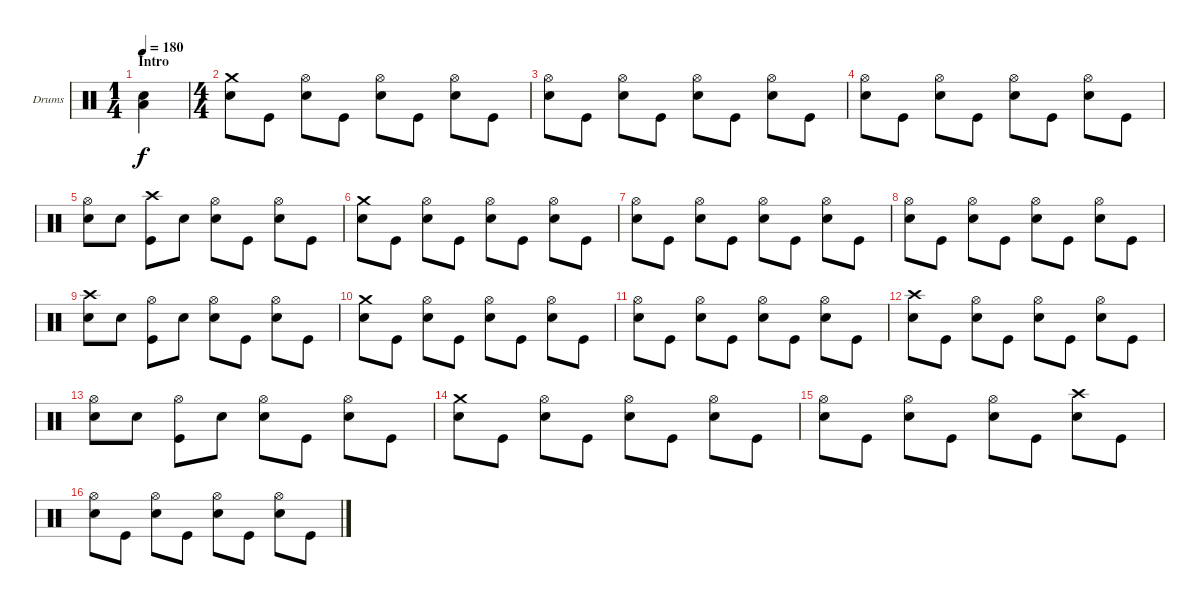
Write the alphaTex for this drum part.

\defaultSystemsLayout 4
\bracketExtendMode groupsimilarinstruments
\firstSystemTrackNameOrientation horizontal
\otherSystemsTrackNameOrientation horizontal
\track ("Drumkit" "Drums") {instrument percussion}
\staff {score}
\articulation defaults
\ts (1 4)
\section ("" "Intro")
\tempo 180
\clef neutral
\ks c
("Snare (hit) 2" "Low Tom (hit)").4{dy f} |
\ts (4 4)
("Crash medium (hit)" "Snare (hit) 2").8 "Kick (hit)".8 ("Hi-Hat (open)" "Snare (hit) 2").8 "Kick (hit)".8 ("Hi-Hat (open)" "Snare (hit) 2").8 "Kick (hit)".8 ("Hi-Hat (open)" "Snare (hit) 2").8 "Kick (hit)".8 |
("Snare (hit) 2" "Hi-Hat (open)").8 "Kick (hit)".8 ("Hi-Hat (open)" "Snare (hit) 2").8 "Kick (hit)".8 ("Hi-Hat (open)" "Snare (hit) 2").8 "Kick (hit)".8 ("Hi-Hat (open)" "Snare (hit) 2").8 "Kick (hit)".8 |
("Snare (hit) 2" "Hi-Hat (open)").8 "Kick (hit)".8 ("Hi-Hat (open)" "Snare (hit) 2").8 "Kick (hit)".8 ("Hi-Hat (open)" "Snare (hit) 2").8 "Kick (hit)".8 ("Hi-Hat (open)" "Snare (hit) 2").8 "Kick (hit)".8 |
("Snare (hit) 2" "Hi-Hat (open)").8 "Snare (hit) 2".8 ("Kick (hit)" "Crash high (hit)").8 "Snare (hit) 2".8 ("Snare (hit) 2" "Hi-Hat (open)").8 "Kick (hit)".8 ("Snare (hit) 2" "Hi-Hat (open)").8 "Kick (hit)".8 |
("Crash medium (hit)" "Snare (hit) 2").8 "Kick (hit)".8 ("Hi-Hat (open)" "Snare (hit) 2").8 "Kick (hit)".8 ("Hi-Hat (open)" "Snare (hit) 2").8 "Kick (hit)".8 ("Hi-Hat (open)" "Snare (hit) 2").8 "Kick (hit)".8 |
("Snare (hit) 2" "Hi-Hat (open)").8 "Kick (hit)".8 ("Hi-Hat (open)" "Snare (hit) 2").8 "Kick (hit)".8 ("Hi-Hat (open)" "Snare (hit) 2").8 "Kick (hit)".8 ("Hi-Hat (open)" "Snare (hit) 2").8 "Kick (hit)".8 |
("Snare (hit) 2" "Hi-Hat (open)").8 "Kick (hit)".8 ("Hi-Hat (open)" "Snare (hit) 2").8 "Kick (hit)".8 ("Hi-Hat (open)" "Snare (hit) 2").8 "Kick (hit)".8 ("Hi-Hat (open)" "Snare (hit) 2").8 "Kick (hit)".8 |
("Snare (hit) 2" "Crash high (hit)").8 "Snare (hit) 2".8 ("Kick (hit)" "Hi-Hat (open)").8 "Snare (hit) 2".8 ("Snare (hit) 2" "Hi-Hat (open)").8 "Kick (hit)".8 ("Snare (hit) 2" "Hi-Hat (open)").8 "Kick (hit)".8 |
("Crash medium (hit)" "Snare (hit) 2").8 "Kick (hit)".8 ("Hi-Hat (open)" "Snare (hit) 2").8 "Kick (hit)".8 ("Hi-Hat (open)" "Snare (hit) 2").8 "Kick (hit)".8 ("Hi-Hat (open)" "Snare (hit) 2").8 "Kick (hit)".8 |
("Snare (hit) 2" "Hi-Hat (open)").8 "Kick (hit)".8 ("Snare (hit) 2" "Hi-Hat (open)").8 "Kick (hit)".8 ("Hi-Hat (open)" "Snare (hit) 2").8 "Kick (hit)".8 ("Hi-Hat (open)" "Snare (hit) 2").8 "Kick (hit)".8 |
("Snare (hit) 2" "Crash high (hit)").8 "Kick (hit)".8 ("Hi-Hat (open)" "Snare (hit) 2").8 "Kick (hit)".8 ("Hi-Hat (open)" "Snare (hit) 2").8 "Kick (hit)".8 ("Hi-Hat (open)" "Snare (hit) 2").8 "Kick (hit)".8 |
("Snare (hit) 2" "Hi-Hat (open)").8 "Snare (hit) 2".8 ("Kick (hit)" "Hi-Hat (open)").8 "Snare (hit) 2".8 ("Snare (hit) 2" "Hi-Hat (open)").8 "Kick (hit)".8 ("Snare (hit) 2" "Hi-Hat (open)").8 "Kick (hit)".8 |
("Crash medium (hit)" "Snare (hit) 2").8 "Kick (hit)".8 ("Hi-Hat (open)" "Snare (hit) 2").8 "Kick (hit)".8 ("Hi-Hat (open)" "Snare (hit) 2").8 "Kick (hit)".8 ("Hi-Hat (open)" "Snare (hit) 2").8 "Kick (hit)".8 |
("Snare (hit) 2" "Hi-Hat (open)").8 "Kick (hit)".8 ("Hi-Hat (open)" "Snare (hit) 2").8 "Kick (hit)".8 ("Hi-Hat (open)" "Snare (hit) 2").8 "Kick (hit)".8 ("Snare (hit) 2" "Crash high (hit)").8 "Kick (hit)".8 |
("Snare (hit) 2" "Hi-Hat (open)").8 "Kick (hit)".8 ("Hi-Hat (open)" "Snare (hit) 2").8 "Kick (hit)".8 ("Hi-Hat (open)" "Snare (hit) 2").8 "Kick (hit)".8 ("Hi-Hat (open)" "Snare (hit) 2").8 "Kick (hit)".8
